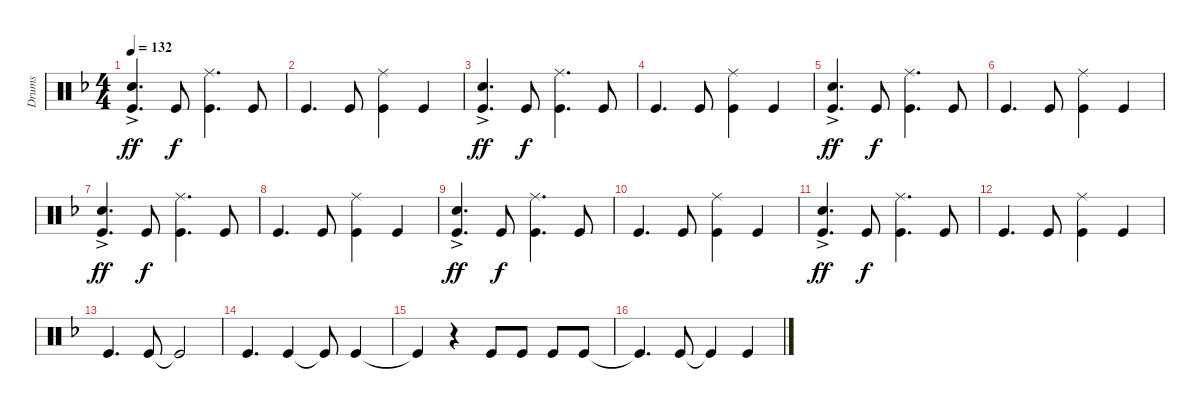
\track ("Drums" "Drums") {instrument percussion}
\staff {score}
\articulation defaults
\ts (4 4)
\tempo 132
\clef neutral
\ks f
("Electric Snare (hit)"{ac} "Kick (hit)"{ac}).4{d dy ff} "Kick (hit)".8{dy f} ("Ride (middle)" "Kick (hit)").4{d} "Kick (hit)".8 |
"Kick (hit)".4{d} "Kick (hit)".8 ("Ride (middle)" "Kick (hit)").4 "Kick (hit)".4 |
("Electric Snare (hit)"{ac} "Kick (hit)"{ac}).4{d dy ff} "Kick (hit)".8{dy f} ("Ride (middle)" "Kick (hit)").4{d} "Kick (hit)".8 |
"Kick (hit)".4{d} "Kick (hit)".8 ("Ride (middle)" "Kick (hit)").4 "Kick (hit)".4 |
("Electric Snare (hit)"{ac} "Kick (hit)"{ac}).4{d dy ff} "Kick (hit)".8{dy f} ("Ride (middle)" "Kick (hit)").4{d} "Kick (hit)".8 |
"Kick (hit)".4{d} "Kick (hit)".8 ("Ride (middle)" "Kick (hit)").4 "Kick (hit)".4 |
("Electric Snare (hit)"{ac} "Kick (hit)"{ac}).4{d dy ff} "Kick (hit)".8{dy f} ("Ride (middle)" "Kick (hit)").4{d} "Kick (hit)".8 |
"Kick (hit)".4{d} "Kick (hit)".8 ("Ride (middle)" "Kick (hit)").4 "Kick (hit)".4 |
("Electric Snare (hit)"{ac} "Kick (hit)"{ac}).4{d dy ff} "Kick (hit)".8{dy f} ("Ride (middle)" "Kick (hit)").4{d} "Kick (hit)".8 |
"Kick (hit)".4{d} "Kick (hit)".8 ("Ride (middle)" "Kick (hit)").4 "Kick (hit)".4 |
("Electric Snare (hit)"{ac} "Kick (hit)"{ac}).4{d dy ff} "Kick (hit)".8{dy f} ("Ride (middle)" "Kick (hit)").4{d} "Kick (hit)".8 |
"Kick (hit)".4{d} "Kick (hit)".8 ("Ride (middle)" "Kick (hit)").4 "Kick (hit)".4 |
"Kick (hit)".4{d} "Kick (hit)".8 "Kick (hit)"{t}.2 |
"Kick (hit)".4{d} "Kick (hit)".4 "Kick (hit)"{t}.8 "Kick (hit)".4 |
"Kick (hit)"{t}.4 r.4 "Kick (hit)".8 "Kick (hit)".8 "Kick (hit)".8 "Kick (hit)".8 |
"Kick (hit)"{t}.4{d} "Kick (hit)".8 "Kick (hit)"{t}.4 "Kick (hit)".4
